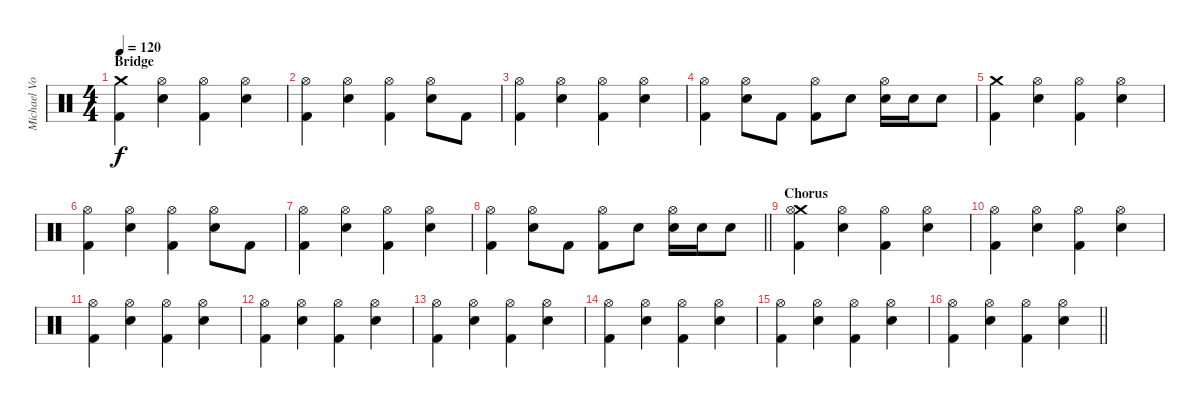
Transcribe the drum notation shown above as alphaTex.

\track ("Michael Von Knorring" "Michael Vo") {instrument percussion}
\staff {score}
\articulation defaults
\ts (4 4)
\section ("" "Bridge")
\tempo 120
\clef neutral
\ks c
("Crash medium (hit)" "Kick (hit) 2").4{dy f} ("Hi-Hat (open)" "Snare (hit) 2").4 ("Hi-Hat (open)" "Kick (hit) 2").4 ("Hi-Hat (open)" "Snare (hit) 2").4 |
("Hi-Hat (open)" "Kick (hit) 2").4 ("Hi-Hat (open)" "Snare (hit) 2").4 ("Hi-Hat (open)" "Kick (hit) 2").4 ("Hi-Hat (open)" "Snare (hit) 2").8 "Kick (hit) 2".8 |
("Hi-Hat (open)" "Kick (hit) 2").4 ("Hi-Hat (open)" "Snare (hit) 2").4 ("Hi-Hat (open)" "Kick (hit) 2").4 ("Hi-Hat (open)" "Snare (hit) 2").4 |
("Hi-Hat (open)" "Kick (hit) 2").4 ("Hi-Hat (open)" "Snare (hit) 2").8 "Kick (hit) 2".8 ("Hi-Hat (open)" "Kick (hit) 2").8 "Snare (hit) 2".8 ("Hi-Hat (open)" "Snare (hit) 2").16 "Snare (hit) 2".16 "Snare (hit) 2".8 |
("Crash medium (hit)" "Kick (hit) 2").4 ("Hi-Hat (open)" "Snare (hit) 2").4 ("Hi-Hat (open)" "Kick (hit) 2").4 ("Hi-Hat (open)" "Snare (hit) 2").4 |
("Hi-Hat (open)" "Kick (hit) 2").4 ("Hi-Hat (open)" "Snare (hit) 2").4 ("Hi-Hat (open)" "Kick (hit) 2").4 ("Hi-Hat (open)" "Snare (hit) 2").8 "Kick (hit) 2".8 |
("Hi-Hat (open)" "Kick (hit) 2").4 ("Hi-Hat (open)" "Snare (hit) 2").4 ("Hi-Hat (open)" "Kick (hit) 2").4 ("Hi-Hat (open)" "Snare (hit) 2").4 |
\barLineRight lightlight
("Hi-Hat (open)" "Kick (hit) 2").4 ("Hi-Hat (open)" "Snare (hit) 2").8 "Kick (hit) 2".8 ("Hi-Hat (open)" "Kick (hit) 2").8 "Snare (hit) 2".8 ("Hi-Hat (open)" "Snare (hit) 2").16 "Snare (hit) 2".16 "Snare (hit) 2".8 |
\section ("" "Chorus")
("Crash medium (hit)" "Hi-Hat (open)" "Kick (hit) 2").4 ("Hi-Hat (open)" "Snare (hit) 2").4 ("Hi-Hat (open)" "Kick (hit) 2").4 ("Hi-Hat (open)" "Snare (hit) 2").4 |
("Hi-Hat (open)" "Kick (hit) 2").4 ("Hi-Hat (open)" "Snare (hit) 2").4 ("Hi-Hat (open)" "Kick (hit) 2").4 ("Hi-Hat (open)" "Snare (hit) 2").4 |
("Hi-Hat (open)" "Kick (hit) 2").4 ("Hi-Hat (open)" "Snare (hit) 2").4 ("Hi-Hat (open)" "Kick (hit) 2").4 ("Hi-Hat (open)" "Snare (hit) 2").4 |
("Hi-Hat (open)" "Kick (hit) 2").4 ("Hi-Hat (open)" "Snare (hit) 2").4 ("Hi-Hat (open)" "Kick (hit) 2").4 ("Hi-Hat (open)" "Snare (hit) 2").4 |
("Hi-Hat (open)" "Kick (hit) 2").4 ("Hi-Hat (open)" "Snare (hit) 2").4 ("Hi-Hat (open)" "Kick (hit) 2").4 ("Hi-Hat (open)" "Snare (hit) 2").4 |
("Hi-Hat (open)" "Kick (hit) 2").4 ("Hi-Hat (open)" "Snare (hit) 2").4 ("Hi-Hat (open)" "Kick (hit) 2").4 ("Hi-Hat (open)" "Snare (hit) 2").4 |
("Hi-Hat (open)" "Kick (hit) 2").4 ("Hi-Hat (open)" "Snare (hit) 2").4 ("Hi-Hat (open)" "Kick (hit) 2").4 ("Hi-Hat (open)" "Snare (hit) 2").4 |
\barLineRight lightlight
("Hi-Hat (open)" "Kick (hit) 2").4 ("Hi-Hat (open)" "Snare (hit) 2").4 ("Hi-Hat (open)" "Kick (hit) 2").4 ("Hi-Hat (open)" "Snare (hit) 2").4
